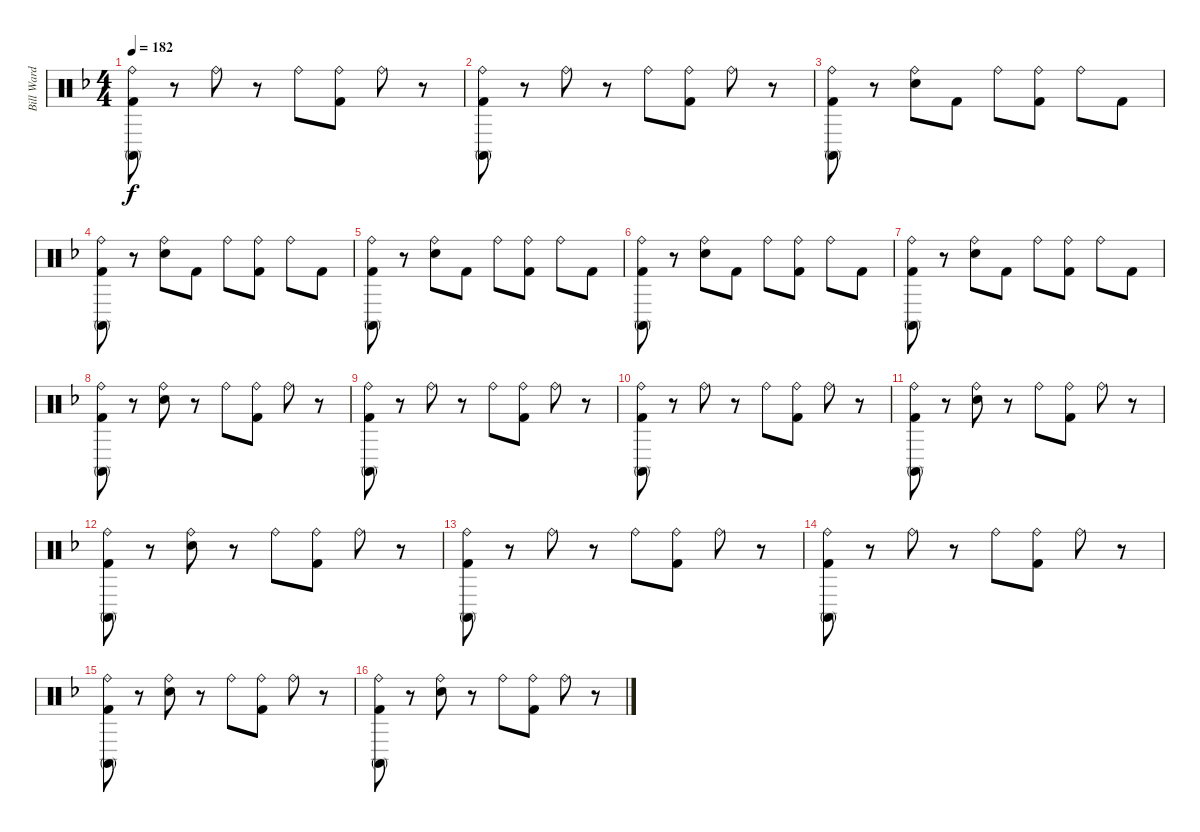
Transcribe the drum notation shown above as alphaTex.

\track ("Bill Ward" "Bill Ward") {instrument percussion}
\staff {score}
\articulation defaults
\ts (4 4)
\tempo 182
\clef neutral
\ks f
("Ride (bell)" "Conga high (mute)" "Kick (hit) 2").8{dy f} r.8 "Ride (bell)".8 r.8 "Ride (bell)".8 ("Ride (bell)" "Kick (hit) 2").8 "Ride (bell)".8 r.8 |
("Ride (bell)" "Conga high (mute)" "Kick (hit) 2").8 r.8 "Ride (bell)".8 r.8 "Ride (bell)".8 ("Ride (bell)" "Kick (hit) 2").8 "Ride (bell)".8 r.8 |
("Ride (bell)" "Conga high (mute)" "Kick (hit) 2").8 r.8 ("Ride (bell)" "Snare (hit) 2").8 "Kick (hit) 2".8 "Ride (bell)".8 ("Ride (bell)" "Kick (hit) 2").8 "Ride (bell)".8 "Kick (hit) 2".8 |
("Ride (bell)" "Conga high (mute)" "Kick (hit) 2").8 r.8 ("Ride (bell)" "Snare (hit) 2").8 "Kick (hit) 2".8 "Ride (bell)".8 ("Ride (bell)" "Kick (hit) 2").8 "Ride (bell)".8 "Kick (hit) 2".8 |
("Ride (bell)" "Conga high (mute)" "Kick (hit) 2").8 r.8 ("Ride (bell)" "Snare (hit) 2").8 "Kick (hit) 2".8 "Ride (bell)".8 ("Ride (bell)" "Kick (hit) 2").8 "Ride (bell)".8 "Kick (hit) 2".8 |
("Ride (bell)" "Conga high (mute)" "Kick (hit) 2").8 r.8 ("Ride (bell)" "Snare (hit) 2").8 "Kick (hit) 2".8 "Ride (bell)".8 ("Ride (bell)" "Kick (hit) 2").8 "Ride (bell)".8 "Kick (hit) 2".8 |
("Ride (bell)" "Conga high (mute)" "Kick (hit) 2").8 r.8 ("Ride (bell)" "Snare (hit) 2").8 "Kick (hit) 2".8 "Ride (bell)".8 ("Ride (bell)" "Kick (hit) 2").8 "Ride (bell)".8 "Kick (hit) 2".8 |
("Ride (bell)" "Conga high (mute)" "Kick (hit) 2").8 r.8 ("Ride (bell)" "Snare (hit) 2").8 r.8 "Ride (bell)".8 ("Ride (bell)" "Kick (hit) 2").8 "Ride (bell)".8 r.8 |
("Ride (bell)" "Conga high (mute)" "Kick (hit) 2").8 r.8 "Ride (bell)".8 r.8 "Ride (bell)".8 ("Ride (bell)" "Kick (hit) 2").8 "Ride (bell)".8 r.8 |
("Ride (bell)" "Conga high (mute)" "Kick (hit) 2").8 r.8 "Ride (bell)".8 r.8 "Ride (bell)".8 ("Ride (bell)" "Kick (hit) 2").8 "Ride (bell)".8 r.8 |
("Ride (bell)" "Conga high (mute)" "Kick (hit) 2").8 r.8 ("Ride (bell)" "Snare (hit) 2").8 r.8 "Ride (bell)".8 ("Ride (bell)" "Kick (hit) 2").8 "Ride (bell)".8 r.8 |
("Ride (bell)" "Conga high (mute)" "Kick (hit) 2").8 r.8 ("Ride (bell)" "Snare (hit) 2").8 r.8 "Ride (bell)".8 ("Ride (bell)" "Kick (hit) 2").8 "Ride (bell)".8 r.8 |
("Ride (bell)" "Conga high (mute)" "Kick (hit) 2").8 r.8 "Ride (bell)".8 r.8 "Ride (bell)".8 ("Ride (bell)" "Kick (hit) 2").8 "Ride (bell)".8 r.8 |
("Ride (bell)" "Conga high (mute)" "Kick (hit) 2").8 r.8 "Ride (bell)".8 r.8 "Ride (bell)".8 ("Ride (bell)" "Kick (hit) 2").8 "Ride (bell)".8 r.8 |
("Ride (bell)" "Conga high (mute)" "Kick (hit) 2").8 r.8 ("Ride (bell)" "Snare (hit) 2").8 r.8 "Ride (bell)".8 ("Ride (bell)" "Kick (hit) 2").8 "Ride (bell)".8 r.8 |
("Ride (bell)" "Conga high (mute)" "Kick (hit) 2").8 r.8 ("Ride (bell)" "Snare (hit) 2").8 r.8 "Ride (bell)".8 ("Ride (bell)" "Kick (hit) 2").8 "Ride (bell)".8 r.8
